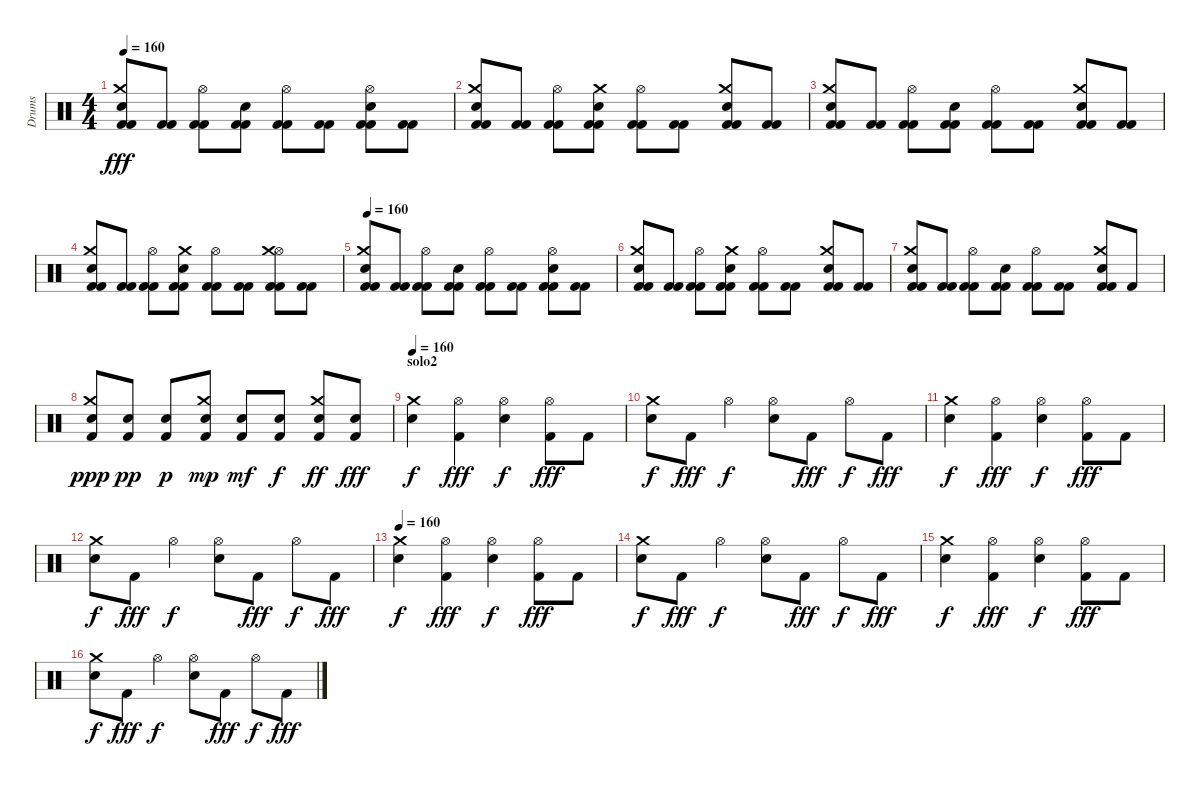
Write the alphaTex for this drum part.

\track ("Drums" "Drums") {instrument percussion}
\staff {score}
\articulation defaults
\ts (4 4)
\tempo 160
\clef neutral
\ks c
("Electric Snare (hit)" "Crash medium (hit)" "Kick (hit) 2" "Kick (hit) 2").8{dy fff} ("Kick (hit) 2" "Kick (hit) 2").8 ("Hi-Hat (open)" "Kick (hit) 2" "Kick (hit) 2").8 ("Electric Snare (hit)" "Kick (hit) 2" "Kick (hit) 2").8 ("Hi-Hat (open)" "Kick (hit) 2" "Kick (hit) 2").8 ("Kick (hit) 2" "Kick (hit) 2").8 ("Hi-Hat (open)" "Electric Snare (hit)" "Kick (hit) 2" "Kick (hit) 2").8 ("Kick (hit) 2" "Kick (hit) 2").8 |
("Electric Snare (hit)" "Crash medium (hit)" "Kick (hit) 2" "Kick (hit) 2").8 ("Kick (hit) 2" "Kick (hit) 2").8 ("Hi-Hat (open)" "Kick (hit) 2" "Kick (hit) 2").8 ("Electric Snare (hit)" "Crash medium (hit)" "Kick (hit) 2" "Kick (hit) 2").8 ("Hi-Hat (open)" "Kick (hit) 2" "Kick (hit) 2").8 ("Kick (hit) 2" "Kick (hit) 2").8 ("Electric Snare (hit)" "Crash medium (hit)" "Kick (hit) 2" "Kick (hit) 2").8 ("Kick (hit) 2" "Kick (hit) 2").8 |
("Electric Snare (hit)" "Crash medium (hit)" "Kick (hit) 2" "Kick (hit) 2").8 ("Kick (hit) 2" "Kick (hit) 2").8 ("Hi-Hat (open)" "Kick (hit) 2" "Kick (hit) 2").8 ("Electric Snare (hit)" "Kick (hit) 2" "Kick (hit) 2").8 ("Hi-Hat (open)" "Kick (hit) 2" "Kick (hit) 2").8 ("Kick (hit) 2" "Kick (hit) 2").8 ("Electric Snare (hit)" "Crash medium (hit)" "Kick (hit) 2" "Kick (hit) 2").8 ("Kick (hit) 2" "Kick (hit) 2").8 |
("Electric Snare (hit)" "Crash medium (hit)" "Kick (hit) 2" "Kick (hit) 2").8 ("Kick (hit) 2" "Kick (hit) 2").8 ("Hi-Hat (open)" "Kick (hit) 2" "Kick (hit) 2").8 ("Electric Snare (hit)" "Crash medium (hit)" "Kick (hit) 2" "Kick (hit) 2").8 ("Hi-Hat (open)" "Kick (hit) 2" "Kick (hit) 2").8 ("Kick (hit) 2" "Kick (hit) 2").8 ("Hi-Hat (open)" "Crash medium (hit)" "Kick (hit) 2" "Kick (hit) 2").8 ("Kick (hit) 2" "Kick (hit) 2").8 |
\tempo 160
("Electric Snare (hit)" "Crash medium (hit)" "Kick (hit) 2" "Kick (hit) 2").8 ("Kick (hit) 2" "Kick (hit) 2").8 ("Hi-Hat (open)" "Kick (hit) 2" "Kick (hit) 2").8 ("Electric Snare (hit)" "Kick (hit) 2" "Kick (hit) 2").8 ("Hi-Hat (open)" "Kick (hit) 2" "Kick (hit) 2").8 ("Kick (hit) 2" "Kick (hit) 2").8 ("Hi-Hat (open)" "Electric Snare (hit)" "Kick (hit) 2" "Kick (hit) 2").8 ("Kick (hit) 2" "Kick (hit) 2").8 |
("Electric Snare (hit)" "Crash medium (hit)" "Kick (hit) 2" "Kick (hit) 2").8 ("Kick (hit) 2" "Kick (hit) 2").8 ("Hi-Hat (open)" "Kick (hit) 2" "Kick (hit) 2").8 ("Electric Snare (hit)" "Crash medium (hit)" "Kick (hit) 2" "Kick (hit) 2").8 ("Hi-Hat (open)" "Kick (hit) 2" "Kick (hit) 2").8 ("Kick (hit) 2" "Kick (hit) 2").8 ("Electric Snare (hit)" "Crash medium (hit)" "Kick (hit) 2" "Kick (hit) 2").8 ("Kick (hit) 2" "Kick (hit) 2").8 |
("Electric Snare (hit)" "Crash medium (hit)" "Kick (hit) 2" "Kick (hit) 2").8 ("Kick (hit) 2" "Kick (hit) 2").8 ("Hi-Hat (open)" "Kick (hit) 2" "Kick (hit) 2").8 ("Electric Snare (hit)" "Kick (hit) 2" "Kick (hit) 2").8 ("Hi-Hat (open)" "Kick (hit) 2" "Kick (hit) 2").8 ("Kick (hit) 2" "Kick (hit) 2").8 ("Electric Snare (hit)" "Crash medium (hit)" "Kick (hit) 2" "Kick (hit) 2").8 "Kick (hit) 2".8 |
("Crash medium (hit)" "Electric Snare (hit)" "Kick (hit) 2").8{dy ppp} ("Electric Snare (hit)" "Kick (hit) 2").8{dy pp} ("Electric Snare (hit)" "Kick (hit) 2").8{dy p} ("Crash medium (hit)" "Kick (hit) 2" "Electric Snare (hit)").8{dy mp} ("Electric Snare (hit)" "Kick (hit) 2").8{dy mf} ("Kick (hit) 2" "Electric Snare (hit)").8{dy f} ("Crash medium (hit)" "Electric Snare (hit)" "Kick (hit) 2").8{dy ff} ("Kick (hit) 2" "Electric Snare (hit)").8{dy fff} |
\section ("" "solo2")
\tempo 160
("Crash medium (hit)" "Electric Snare (hit)").4{dy f} ("Hi-Hat (open)" "Kick (hit) 2").4{dy fff} ("Hi-Hat (open)" "Electric Snare (hit)").4{dy f} ("Hi-Hat (open)" "Kick (hit) 2").8{dy fff} "Kick (hit) 2".8 |
("Crash medium (hit)" "Electric Snare (hit)").8{dy f} "Kick (hit) 2".8{dy fff} "Hi-Hat (open)".4{dy f} ("Hi-Hat (open)" "Electric Snare (hit)").8 "Kick (hit) 2".8{dy fff} "Hi-Hat (open)".8{dy f} "Kick (hit) 2".8{dy fff} |
("Crash medium (hit)" "Electric Snare (hit)").4{dy f} ("Hi-Hat (open)" "Kick (hit) 2").4{dy fff} ("Hi-Hat (open)" "Electric Snare (hit)").4{dy f} ("Hi-Hat (open)" "Kick (hit) 2").8{dy fff} "Kick (hit) 2".8 |
("Crash medium (hit)" "Electric Snare (hit)").8{dy f} "Kick (hit) 2".8{dy fff} "Hi-Hat (open)".4{dy f} ("Hi-Hat (open)" "Electric Snare (hit)").8 "Kick (hit) 2".8{dy fff} "Hi-Hat (open)".8{dy f} "Kick (hit) 2".8{dy fff} |
\tempo 160
("Crash medium (hit)" "Electric Snare (hit)").4{dy f} ("Hi-Hat (open)" "Kick (hit) 2").4{dy fff} ("Hi-Hat (open)" "Electric Snare (hit)").4{dy f} ("Hi-Hat (open)" "Kick (hit) 2").8{dy fff} "Kick (hit) 2".8 |
("Crash medium (hit)" "Electric Snare (hit)").8{dy f} "Kick (hit) 2".8{dy fff} "Hi-Hat (open)".4{dy f} ("Hi-Hat (open)" "Electric Snare (hit)").8 "Kick (hit) 2".8{dy fff} "Hi-Hat (open)".8{dy f} "Kick (hit) 2".8{dy fff} |
("Crash medium (hit)" "Electric Snare (hit)").4{dy f} ("Hi-Hat (open)" "Kick (hit) 2").4{dy fff} ("Hi-Hat (open)" "Electric Snare (hit)").4{dy f} ("Hi-Hat (open)" "Kick (hit) 2").8{dy fff} "Kick (hit) 2".8 |
("Crash medium (hit)" "Electric Snare (hit)").8{dy f} "Kick (hit) 2".8{dy fff} "Hi-Hat (open)".4{dy f} ("Hi-Hat (open)" "Electric Snare (hit)").8 "Kick (hit) 2".8{dy fff} "Hi-Hat (open)".8{dy f} "Kick (hit) 2".8{dy fff}
